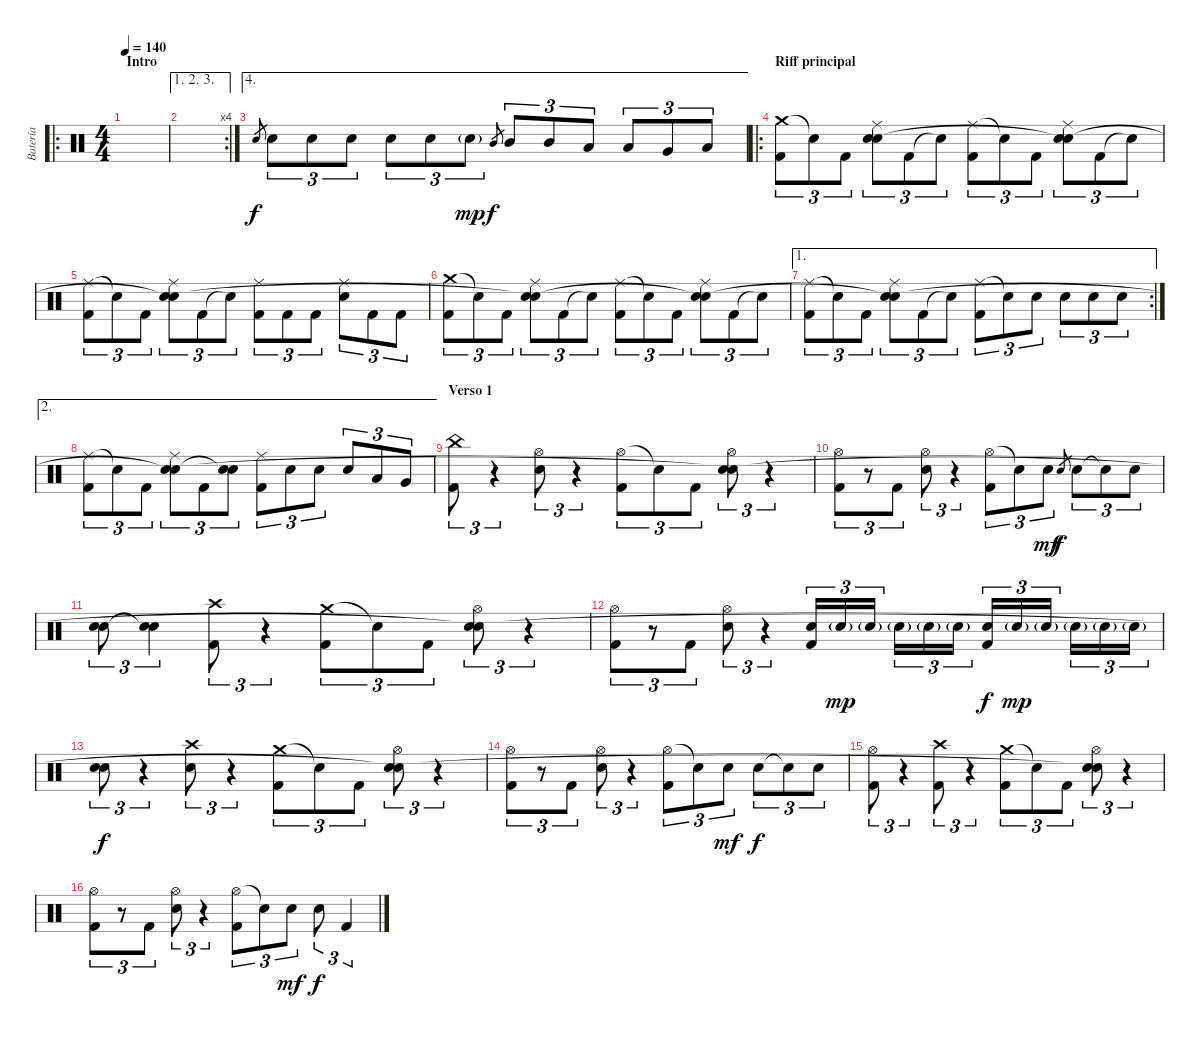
\track ("Batería" "Batería") {instrument percussion}
\staff {score}
\articulation defaults
\ro
\ts (4 4)
\section ("" "Intro")
\tempo 140
\clef neutral
\ks c
|
\ae (1 2 3)
\rc 4
|
\ae 4 "Snare (hit) 2".8{gr} "Snare (hit) 2".8{tu (3 2)} "Snare (hit) 2".8{tu (3 2)} "Snare (hit) 2".8{tu (3 2)} "Snare (hit) 2".8{tu (3 2)} "Snare (hit) 2".8{tu (3 2)} "Snare (hit) 2"{g}.8{tu (3 2) dy mp} "Mid Tom (hit)".8{gr dy f} "Mid Tom (hit)".8{tu (3 2)} "Mid Tom (hit)".8{tu (3 2)} "Low Tom (hit)".8{tu (3 2)} "Low Tom (hit)".8{tu (3 2)} "Very Low Tom (hit)".8{tu (3 2)} "Low Floor Tom (hit)".8{tu (3 2)}
|
\ro
\section ("" "Riff principal")
("Crash medium (hit)" "Kick (hit) 2").8{tu (3 2)} "Snare (hit)"{t}.8{tu (3 2)} "Kick (hit) 2".8{tu (3 2)} ("Ride (middle)" "Snare (hit) 2" "Snare (hit)").8{tu (3 2)} "Kick (hit) 2".8{tu (3 2)} "Snare (hit)"{t}.8{tu (3 2)} ("Ride (middle)" "Kick (hit) 2").8{tu (3 2)} "Snare (hit)"{t}.8{tu (3 2)} "Kick (hit) 2".8{tu (3 2)} ("Ride (middle)" "Snare (hit) 2" "Snare (hit)"{t}).8{tu (3 2)} "Kick (hit) 2".8{tu (3 2)} "Snare (hit)"{t}.8{tu (3 2)} |
("Ride (middle)" "Kick (hit) 2").8{tu (3 2)} "Snare (hit)"{t}.8{tu (3 2)} "Kick (hit) 2".8{tu (3 2)} ("Ride (middle)" "Snare (hit) 2" "Snare (hit)"{t}).8{tu (3 2)} "Kick (hit) 2".8{tu (3 2)} "Snare (hit)"{t}.8{tu (3 2)} ("Ride (middle)" "Kick (hit) 2").8{tu (3 2)} "Kick (hit) 2".8{tu (3 2)} "Kick (hit) 2".8{tu (3 2)} ("Ride (middle)" "Snare (hit) 2").8{tu (3 2)} "Kick (hit) 2".8{tu (3 2)} "Kick (hit) 2".8{tu (3 2)} |
("Crash medium (hit)" "Kick (hit) 2").8{tu (3 2)} "Snare (hit)"{t}.8{tu (3 2)} "Kick (hit) 2".8{tu (3 2)} ("Ride (middle)" "Snare (hit) 2" "Snare (hit)"{t}).8{tu (3 2)} "Kick (hit) 2".8{tu (3 2)} "Snare (hit)"{t}.8{tu (3 2)} ("Ride (middle)" "Kick (hit) 2").8{tu (3 2)} "Snare (hit)"{t}.8{tu (3 2)} "Kick (hit) 2".8{tu (3 2)} ("Ride (middle)" "Snare (hit) 2" "Snare (hit)"{t}).8{tu (3 2)} "Kick (hit) 2".8{tu (3 2)} "Snare (hit)"{t}.8{tu (3 2)} |
\ae 1
\rc 2
("Ride (middle)" "Kick (hit) 2").8{tu (3 2)} "Snare (hit)"{t}.8{tu (3 2)} "Kick (hit) 2".8{tu (3 2)} ("Ride (middle)" "Snare (hit) 2" "Snare (hit)"{t}).8{tu (3 2)} "Kick (hit) 2".8{tu (3 2)} "Snare (hit)"{t}.8{tu (3 2)} ("Ride (middle)" "Kick (hit) 2").8{tu (3 2)} "Snare (hit)"{t}.8{tu (3 2)} "Snare (hit) 2".8{tu (3 2)} "Snare (hit) 2".8{tu (3 2)} "Snare (hit) 2".8{tu (3 2)} "Snare (hit) 2".8{tu (3 2)} |
\ae 2
("Ride (middle)" "Kick (hit) 2").8{tu (3 2)} "Snare (hit)"{t}.8{tu (3 2)} "Kick (hit) 2".8{tu (3 2)} ("Ride (middle)" "Snare (hit) 2" "Snare (hit)"{t}).8{tu (3 2)} "Kick (hit) 2".8{tu (3 2)} ("Snare (hit) 2" "Snare (hit)"{t}).8{tu (3 2)} ("Ride (middle)" "Kick (hit) 2").8{tu (3 2)} "Snare (hit) 2".8{tu (3 2)} "Snare (hit) 2".8{tu (3 2)} "Snare (hit) 2".8{tu (3 2)} "Low Tom (hit)".8{tu (3 2)} "Very Low Tom (hit)".8{tu (3 2)} |
\section ("" "Verso 1")
("China (hit)" "Kick (hit) 2").8{tu (3 2)} r.4{tu (3 2)} ("Hi-Hat (open)" "Snare (hit) 2").8{tu (3 2)} r.4{tu (3 2)} ("Hi-Hat (open)" "Kick (hit) 2").8{tu (3 2)} "Snare (hit)"{t}.8{tu (3 2)} "Kick (hit) 2".8{tu (3 2)} ("Hi-Hat (open)" "Snare (hit) 2" "Snare (hit)"{t}).8{tu (3 2)} r.4{tu (3 2)} |
("Hi-Hat (open)" "Kick (hit) 2").8{tu (3 2)} r.8{tu (3 2)} "Kick (hit) 2".8{tu (3 2)} ("Hi-Hat (open)" "Snare (hit) 2").8{tu (3 2)} r.4{tu (3 2)} ("Hi-Hat (open)" "Kick (hit) 2").8{tu (3 2)} "Snare (hit)"{t}.8{tu (3 2)} "Snare (hit) 2".8{tu (3 2) dy mf} "Snare (hit) 2".8{gr dy f} "Snare (hit) 2".8{tu (3 2)} "Snare (hit)"{t}.8{tu (3 2)} "Snare (hit) 2".8{tu (3 2)} |
("Snare (hit) 2" "Snare (hit) 2").8{tu (3 2)} ("Snare (hit)"{t} "Snare (hit)"{t}).4{tu (3 2)} ("Crash high (hit)" "Kick (hit) 2").8{tu (3 2)} r.4{tu (3 2)} ("Crash medium (hit)" "Kick (hit) 2").8{tu (3 2)} "Snare (hit)"{t}.8{tu (3 2)} "Kick (hit) 2".8{tu (3 2)} ("Hi-Hat (open)" "Snare (hit) 2" "Snare (hit)"{t}).8{tu (3 2)} r.4{tu (3 2)} |
("Hi-Hat (open)" "Kick (hit) 2").8{tu (3 2)} r.8{tu (3 2)} "Kick (hit) 2".8{tu (3 2)} ("Hi-Hat (open)" "Snare (hit) 2").8{tu (3 2)} r.4{tu (3 2)} ("Snare (hit) 2" "Kick (hit) 2").16{tu (3 2)} "Snare (hit) 2"{g}.16{tu (3 2) dy mp} "Snare (hit) 2"{g}.16{tu (3 2)} "Snare (hit) 2"{g}.16{tu (3 2)} "Snare (hit) 2"{g}.16{tu (3 2)} "Snare (hit) 2"{g}.16{tu (3 2)} ("Snare (hit) 2" "Kick (hit) 2").16{tu (3 2) dy f} "Snare (hit) 2"{g}.16{tu (3 2) dy mp} "Snare (hit) 2"{g}.16{tu (3 2)} "Snare (hit) 2"{g}.16{tu (3 2)} "Snare (hit) 2"{g}.16{tu (3 2)} "Snare (hit) 2"{g}.16{tu (3 2)} |
("Snare (hit) 2" "Snare (hit) 2").8{tu (3 2) dy f} r.4{tu (3 2)} ("Crash high (hit)" "Snare (hit) 2").8{tu (3 2)} r.4{tu (3 2)} ("Crash medium (hit)" "Kick (hit) 2").8{tu (3 2)} "Snare (hit)"{t}.8{tu (3 2)} "Kick (hit) 2".8{tu (3 2)} ("Hi-Hat (open)" "Snare (hit) 2" "Snare (hit)"{t}).8{tu (3 2)} r.4{tu (3 2)} |
("Hi-Hat (open)" "Kick (hit) 2").8{tu (3 2)} r.8{tu (3 2)} "Kick (hit) 2".8{tu (3 2)} ("Hi-Hat (open)" "Snare (hit) 2").8{tu (3 2)} r.4{tu (3 2)} ("Hi-Hat (open)" "Kick (hit) 2").8{tu (3 2)} "Snare (hit)"{t}.8{tu (3 2)} "Snare (hit) 2".8{tu (3 2) dy mf} "Snare (hit) 2".8{tu (3 2) dy f} "Snare (hit)"{t}.8{tu (3 2)} "Snare (hit) 2".8{tu (3 2)} |
("Hi-Hat (open)" "Kick (hit) 2").8{tu (3 2)} r.4{tu (3 2)} ("Crash high (hit)" "Kick (hit) 2").8{tu (3 2)} r.4{tu (3 2)} ("Crash medium (hit)" "Kick (hit) 2").8{tu (3 2)} "Snare (hit)"{t}.8{tu (3 2)} "Kick (hit) 2".8{tu (3 2)} ("Hi-Hat (open)" "Snare (hit) 2" "Snare (hit)"{t}).8{tu (3 2)} r.4{tu (3 2)} |
("Hi-Hat (open)" "Kick (hit) 2").8{tu (3 2)} r.8{tu (3 2)} "Kick (hit) 2".8{tu (3 2)} ("Hi-Hat (open)" "Snare (hit) 2").8{tu (3 2)} r.4{tu (3 2)} ("Hi-Hat (open)" "Kick (hit) 2").8{tu (3 2)} "Snare (hit)"{t}.8{tu (3 2)} "Snare (hit) 2".8{tu (3 2) dy mf} "Snare (hit) 2".8{tu (3 2) dy f} "Kick (hit) 2".4{tu (3 2)}
